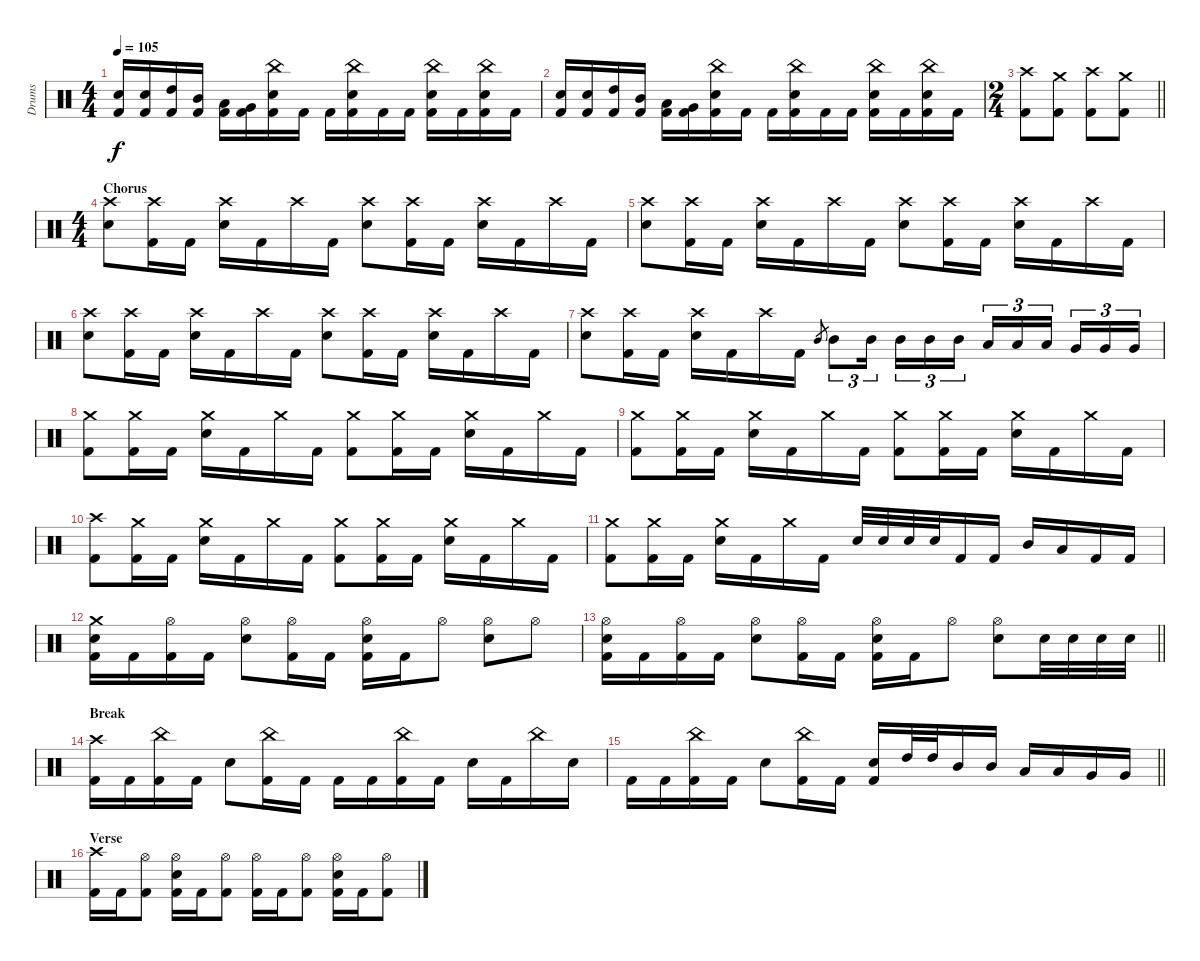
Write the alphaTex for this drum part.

\track ("Drums" "Drums") {instrument percussion}
\staff {score}
\articulation defaults
\ts (4 4)
\tempo 105
\clef neutral
\ks c
("Electric Snare (hit)" "Kick (hit) 2").16{dy f} ("Electric Snare (hit)" "Kick (hit) 2").16 ("High Tom (hit)" "Kick (hit) 2").16 ("Mid Tom (hit)" "Kick (hit) 2").16 ("Low Tom (hit)" "Kick (hit) 2").16 ("Very Low Tom (hit)" "Kick (hit) 2").16 ("China (hit)" "Electric Snare (hit)" "Kick (hit) 2").16 "Kick (hit) 2".16 "Kick (hit) 2".16 ("China (hit)" "Electric Snare (hit)" "Kick (hit) 2").16 "Kick (hit) 2".16 "Kick (hit) 2".16 ("China (hit)" "Electric Snare (hit)" "Kick (hit) 2").16 "Kick (hit) 2".16 ("China (hit)" "Electric Snare (hit)" "Kick (hit) 2").16 "Kick (hit) 2".16 |
("Electric Snare (hit)" "Kick (hit) 2").16 ("Electric Snare (hit)" "Kick (hit) 2").16 ("High Tom (hit)" "Kick (hit) 2").16 ("Mid Tom (hit)" "Kick (hit) 2").16 ("Low Tom (hit)" "Kick (hit) 2").16 ("Very Low Tom (hit)" "Kick (hit) 2").16 ("China (hit)" "Electric Snare (hit)" "Kick (hit) 2").16 "Kick (hit) 2".16 "Kick (hit) 2".16 ("China (hit)" "Electric Snare (hit)" "Kick (hit) 2").16 "Kick (hit) 2".16 "Kick (hit) 2".16 ("China (hit)" "Electric Snare (hit)" "Kick (hit) 2").16 "Kick (hit) 2".16 ("China (hit)" "Electric Snare (hit)" "Kick (hit) 2").16 "Kick (hit) 2".16 |
\ts (2 4)
\barLineRight lightlight
("Crash high (hit)" "Kick (hit) 2").8 ("Crash medium (hit)" "Kick (hit) 2").8 ("Crash high (hit)" "Kick (hit) 2").8 ("Crash medium (hit)" "Kick (hit) 2").8 |
\ts (4 4)
\section ("" "Chorus")
("Crash high (hit)" "Electric Snare (hit)").8 ("Crash high (hit)" "Kick (hit) 2").16 "Kick (hit) 2".16 ("Crash high (hit)" "Electric Snare (hit)").16 "Kick (hit) 2".16 "Crash high (hit)".16 "Kick (hit) 2".16 ("Crash high (hit)" "Electric Snare (hit)").8 ("Crash high (hit)" "Kick (hit) 2").16 "Kick (hit) 2".16 ("Crash high (hit)" "Electric Snare (hit)").16 "Kick (hit) 2".16 "Crash high (hit)".16 "Kick (hit) 2".16 |
("Crash high (hit)" "Electric Snare (hit)").8 ("Crash high (hit)" "Kick (hit) 2").16 "Kick (hit) 2".16 ("Crash high (hit)" "Electric Snare (hit)").16 "Kick (hit) 2".16 "Crash high (hit)".16 "Kick (hit) 2".16 ("Crash high (hit)" "Electric Snare (hit)").8 ("Crash high (hit)" "Kick (hit) 2").16 "Kick (hit) 2".16 ("Crash high (hit)" "Electric Snare (hit)").16 "Kick (hit) 2".16 "Crash high (hit)".16 "Kick (hit) 2".16 |
("Crash high (hit)" "Electric Snare (hit)").8 ("Crash high (hit)" "Kick (hit) 2").16 "Kick (hit) 2".16 ("Crash high (hit)" "Electric Snare (hit)").16 "Kick (hit) 2".16 "Crash high (hit)".16 "Kick (hit) 2".16 ("Crash high (hit)" "Electric Snare (hit)").8 ("Crash high (hit)" "Kick (hit) 2").16 "Kick (hit) 2".16 ("Crash high (hit)" "Electric Snare (hit)").16 "Kick (hit) 2".16 "Crash high (hit)".16 "Kick (hit) 2".16 |
("Crash high (hit)" "Electric Snare (hit)").8 ("Crash high (hit)" "Kick (hit) 2").16 "Kick (hit) 2".16 ("Crash high (hit)" "Electric Snare (hit)").16 "Kick (hit) 2".16 "Crash high (hit)".16 "Kick (hit) 2".16 "Mid Tom (hit)".8{gr} "Mid Tom (hit)".8{tu (3 2)} "Mid Tom (hit)".16{tu (3 2) beam splitsecondary} "Mid Tom (hit)".16{tu (3 2)} "Mid Tom (hit)".16{tu (3 2)} "Mid Tom (hit)".16{tu (3 2)} "Low Tom (hit)".16{tu (3 2)} "Low Tom (hit)".16{tu (3 2)} "Low Tom (hit)".16{tu (3 2) beam splitsecondary} "Very Low Tom (hit)".16{tu (3 2)} "Very Low Tom (hit)".16{tu (3 2)} "Very Low Tom (hit)".16{tu (3 2)} |
("Crash medium (hit)" "Kick (hit) 2").8 ("Crash medium (hit)" "Kick (hit) 2").16 "Kick (hit) 2".16 ("Crash medium (hit)" "Electric Snare (hit)").16 "Kick (hit) 2".16 "Crash medium (hit)".16 "Kick (hit) 2".16 ("Crash medium (hit)" "Kick (hit) 2").8 ("Crash medium (hit)" "Kick (hit) 2").16 "Kick (hit) 2".16 ("Crash medium (hit)" "Electric Snare (hit)").16 "Kick (hit) 2".16 "Crash medium (hit)".16 "Kick (hit) 2".16 |
("Crash medium (hit)" "Kick (hit) 2").8 ("Crash medium (hit)" "Kick (hit) 2").16 "Kick (hit) 2".16 ("Crash medium (hit)" "Electric Snare (hit)").16 "Kick (hit) 2".16 "Crash medium (hit)".16 "Kick (hit) 2".16 ("Crash medium (hit)" "Kick (hit) 2").8 ("Crash medium (hit)" "Kick (hit) 2").16 "Kick (hit) 2".16 ("Crash medium (hit)" "Electric Snare (hit)").16 "Kick (hit) 2".16 "Crash medium (hit)".16 "Kick (hit) 2".16 |
("Crash high (hit)" "Kick (hit) 2").8 ("Crash medium (hit)" "Kick (hit) 2").16 "Kick (hit) 2".16 ("Crash medium (hit)" "Electric Snare (hit)").16 "Kick (hit) 2".16 "Crash medium (hit)".16 "Kick (hit) 2".16 ("Crash medium (hit)" "Kick (hit) 2").8 ("Crash medium (hit)" "Kick (hit) 2").16 "Kick (hit) 2".16 ("Crash medium (hit)" "Electric Snare (hit)").16 "Kick (hit) 2".16 "Crash medium (hit)".16 "Kick (hit) 2".16 |
("Crash medium (hit)" "Kick (hit) 2").8 ("Crash medium (hit)" "Kick (hit) 2").16 "Kick (hit) 2".16 ("Crash medium (hit)" "Electric Snare (hit)").16 "Kick (hit) 2".16 "Crash medium (hit)".16 "Kick (hit) 2".16 "Electric Snare (hit)".32 "Electric Snare (hit)".32 "Electric Snare (hit)".32 "Electric Snare (hit)".32 "Kick (hit) 2".16 "Kick (hit) 2".16 "Mid Tom (hit)".16 "Low Tom (hit)".16 "Kick (hit) 2".16 "Kick (hit) 2".16 |
("Crash medium (hit)" "Electric Snare (hit)" "Kick (hit) 2").16 "Kick (hit) 2".16 ("Hi-Hat (open)" "Kick (hit) 2").16 "Kick (hit) 2".16 ("Hi-Hat (open)" "Electric Snare (hit)").8 ("Hi-Hat (open)" "Kick (hit) 2").16 "Kick (hit) 2".16 ("Hi-Hat (open)" "Electric Snare (hit)" "Kick (hit) 2").16 "Kick (hit) 2".16 "Hi-Hat (open)".8 ("Hi-Hat (open)" "Electric Snare (hit)").8 "Hi-Hat (open)".8 |
\barLineRight lightlight
("Hi-Hat (open)" "Electric Snare (hit)" "Kick (hit) 2").16 "Kick (hit) 2".16 ("Hi-Hat (open)" "Kick (hit) 2").16 "Kick (hit) 2".16 ("Hi-Hat (open)" "Electric Snare (hit)").8 ("Hi-Hat (open)" "Kick (hit) 2").16 "Kick (hit) 2".16 ("Hi-Hat (open)" "Electric Snare (hit)" "Kick (hit) 2").16 "Kick (hit) 2".16 "Hi-Hat (open)".8 ("Hi-Hat (open)" "Electric Snare (hit)").8 "Electric Snare (hit)".32 "Electric Snare (hit)".32 "Electric Snare (hit)".32 "Electric Snare (hit)".32 |
\section ("" "Break")
("Crash high (hit)" "Kick (hit) 2").16 "Kick (hit) 2".16 ("China (hit)" "Kick (hit) 2").16 "Kick (hit) 2".16 "Electric Snare (hit)".8 ("China (hit)" "Kick (hit) 2").16 "Kick (hit) 2".16 "Kick (hit) 2".16 "Kick (hit) 2".16 ("China (hit)" "Kick (hit) 2").16 "Kick (hit) 2".16 "Electric Snare (hit)".16 "Kick (hit) 2".16 "China (hit)".16 "Electric Snare (hit)".16 |
\barLineRight lightlight "Kick (hit) 2".16 "Kick (hit) 2".16
("China (hit)" "Kick (hit) 2").16 "Kick (hit) 2".16 "Electric Snare (hit)".8 ("China (hit)" "Kick (hit) 2").16 "Kick (hit) 2".16 ("Electric Snare (hit)" "Kick (hit) 2").16 "High Tom (hit)".32 "High Tom (hit)".32 "Mid Tom (hit)".16 "Mid Tom (hit)".16 "Low Tom (hit)".16 "Low Tom (hit)".16 "Very Low Tom (hit)".16 "Very Low Tom (hit)".16 |
\section ("" "Verse")
("Crash high (hit)" "Kick (hit) 2").16 "Kick (hit) 2".16 ("Hi-Hat (open)" "Kick (hit) 2").8 ("Hi-Hat (open)" "Electric Snare (hit)" "Kick (hit) 2").16 "Kick (hit) 2".16 ("Hi-Hat (open)" "Kick (hit) 2").8 ("Hi-Hat (open)" "Kick (hit) 2").16 "Kick (hit) 2".16 ("Hi-Hat (open)" "Kick (hit) 2").8 ("Hi-Hat (open)" "Electric Snare (hit)" "Kick (hit) 2").16 "Kick (hit) 2".16 ("Hi-Hat (open)" "Kick (hit) 2").8
